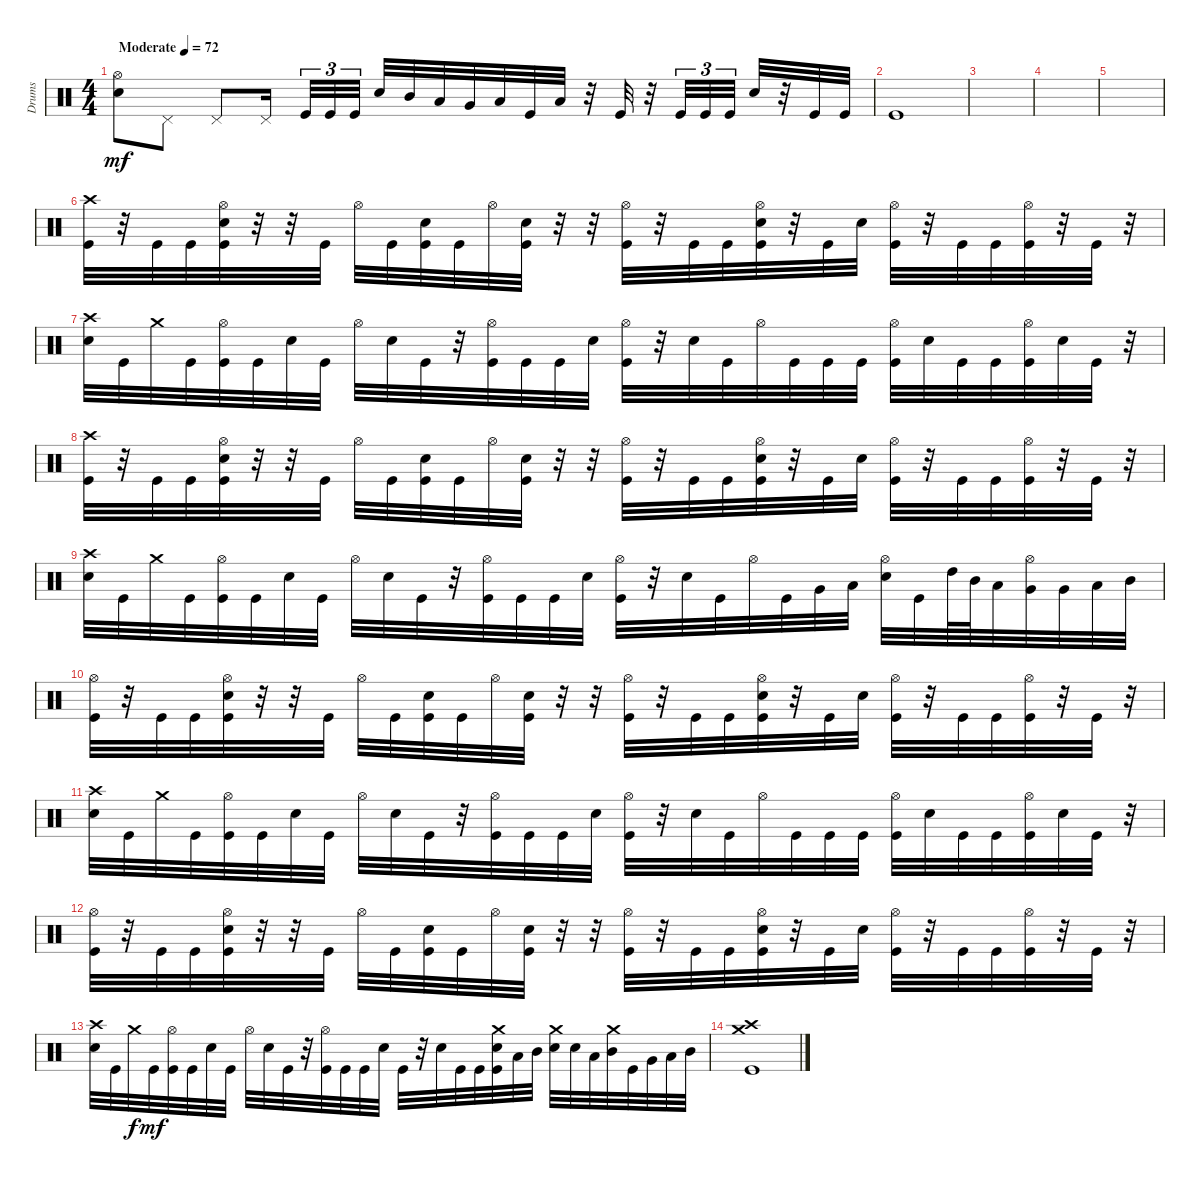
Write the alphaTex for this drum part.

\track ("Drums" "Drums") {instrument percussion}
\staff {score}
\articulation defaults
\ts (4 4)
\tempo (72 "Moderate")
\clef neutral
\ks c
("Hi-Hat (open)" "Electric Snare (hit)").8{dy mf} "Pedal Hi-Hat (hit)".8 "Pedal Hi-Hat (hit)".8 "Pedal Hi-Hat (hit)".16{beam splitsecondary} "Kick (hit)".32{tu (3 2)} "Kick (hit)".32{tu (3 2)} "Kick (hit)".32{tu (3 2)} "Electric Snare (hit)".32 "Mid Tom (hit)".32 "Low Tom (hit)".32 "Very Low Tom (hit)".32 "Low Floor Tom (hit)".32 "Kick (hit)".32 "Low Tom (hit)".32 r.32 "Kick (hit)".32 r.32 "Kick (hit)".32{tu (3 2)} "Kick (hit)".32{tu (3 2)} "Kick (hit)".32{tu (3 2) beam splitsecondary} "Electric Snare (hit)".32 r.32 "Kick (hit)".32 "Kick (hit)".32 |
"Kick (hit)".1 |
|
|
|
("Crash high (hit)" "Kick (hit)").32 r.32 "Kick (hit)".32 "Kick (hit)".32 ("Hi-Hat (open)" "Electric Snare (hit)" "Kick (hit)").32 r.32 r.32 "Kick (hit)".32 "Hi-Hat (open)".32 "Kick (hit)".32 ("Electric Snare (hit)" "Kick (hit)").32 "Kick (hit)".32 "Hi-Hat (open)".32 ("Electric Snare (hit)" "Kick (hit)").32 r.32 r.32 ("Hi-Hat (open)" "Kick (hit)").32 r.32 "Kick (hit)".32 "Kick (hit)".32 ("Hi-Hat (open)" "Electric Snare (hit)" "Kick (hit)").32 r.32 "Kick (hit)".32 "Electric Snare (hit)".32 ("Hi-Hat (open)" "Kick (hit)").32 r.32 "Kick (hit)".32 "Kick (hit)".32 ("Hi-Hat (open)" "Kick (hit)").32 r.32 "Kick (hit)".32 r.32 |
("Crash high (hit)" "Electric Snare (hit)").32 "Kick (hit)".32 "Crash medium (hit)".32 "Kick (hit)".32 ("Hi-Hat (open)" "Kick (hit)").32 "Kick (hit)".32 "Electric Snare (hit)".32 "Kick (hit)".32 "Hi-Hat (open)".32 "Electric Snare (hit)".32 "Kick (hit)".32 r.32 ("Hi-Hat (open)" "Kick (hit)").32 "Kick (hit)".32 "Kick (hit)".32 "Electric Snare (hit)".32 ("Hi-Hat (open)" "Kick (hit)").32 r.32 "Electric Snare (hit)".32 "Kick (hit)".32 "Hi-Hat (open)".32 "Kick (hit)".32 "Kick (hit)".32 "Kick (hit)".32 ("Hi-Hat (open)" "Kick (hit)").32 "Electric Snare (hit)".32 "Kick (hit)".32 "Kick (hit)".32 ("Hi-Hat (open)" "Kick (hit)").32 "Electric Snare (hit)".32 "Kick (hit)".32 r.32 |
("Crash high (hit)" "Kick (hit)").32 r.32 "Kick (hit)".32 "Kick (hit)".32 ("Hi-Hat (open)" "Electric Snare (hit)" "Kick (hit)").32 r.32 r.32 "Kick (hit)".32 "Hi-Hat (open)".32 "Kick (hit)".32 ("Electric Snare (hit)" "Kick (hit)").32 "Kick (hit)".32 "Hi-Hat (open)".32 ("Electric Snare (hit)" "Kick (hit)").32 r.32 r.32 ("Hi-Hat (open)" "Kick (hit)").32 r.32 "Kick (hit)".32 "Kick (hit)".32 ("Hi-Hat (open)" "Electric Snare (hit)" "Kick (hit)").32 r.32 "Kick (hit)".32 "Electric Snare (hit)".32 ("Hi-Hat (open)" "Kick (hit)").32 r.32 "Kick (hit)".32 "Kick (hit)".32 ("Hi-Hat (open)" "Kick (hit)").32 r.32 "Kick (hit)".32 r.32 |
("Crash high (hit)" "Electric Snare (hit)").32 "Kick (hit)".32 "Crash medium (hit)".32 "Kick (hit)".32 ("Hi-Hat (open)" "Kick (hit)").32 "Kick (hit)".32 "Electric Snare (hit)".32 "Kick (hit)".32 "Hi-Hat (open)".32 "Electric Snare (hit)".32 "Kick (hit)".32 r.32 ("Hi-Hat (open)" "Kick (hit)").32 "Kick (hit)".32 "Kick (hit)".32 "Electric Snare (hit)".32 ("Hi-Hat (open)" "Kick (hit)").32 r.32 "Electric Snare (hit)".32 "Kick (hit)".32 "Hi-Hat (open)".32 "Kick (hit)".32 "Very Low Tom (hit)".32 "Low Tom (hit)".32 ("Hi-Hat (open)" "Electric Snare (hit)").32 "Kick (hit)".32 "High Tom (hit)".64 "Mid Tom (hit)".64 "Low Tom (hit)".32 ("Hi-Hat (open)" "Very Low Tom (hit)").32 "Very Low Tom (hit)".32 "Low Tom (hit)".32 "Mid Tom (hit)".32 |
("Hi-Hat (open)" "Kick (hit)").32 r.32 "Kick (hit)".32 "Kick (hit)".32 ("Hi-Hat (open)" "Electric Snare (hit)" "Kick (hit)").32 r.32 r.32 "Kick (hit)".32 "Hi-Hat (open)".32 "Kick (hit)".32 ("Electric Snare (hit)" "Kick (hit)").32 "Kick (hit)".32 "Hi-Hat (open)".32 ("Electric Snare (hit)" "Kick (hit)").32 r.32 r.32 ("Hi-Hat (open)" "Kick (hit)").32 r.32 "Kick (hit)".32 "Kick (hit)".32 ("Hi-Hat (open)" "Electric Snare (hit)" "Kick (hit)").32 r.32 "Kick (hit)".32 "Electric Snare (hit)".32 ("Hi-Hat (open)" "Kick (hit)").32 r.32 "Kick (hit)".32 "Kick (hit)".32 ("Hi-Hat (open)" "Kick (hit)").32 r.32 "Kick (hit)".32 r.32 |
("Crash high (hit)" "Electric Snare (hit)").32 "Kick (hit)".32 "Crash medium (hit)".32 "Kick (hit)".32 ("Hi-Hat (open)" "Kick (hit)").32 "Kick (hit)".32 "Electric Snare (hit)".32 "Kick (hit)".32 "Hi-Hat (open)".32 "Electric Snare (hit)".32 "Kick (hit)".32 r.32 ("Hi-Hat (open)" "Kick (hit)").32 "Kick (hit)".32 "Kick (hit)".32 "Electric Snare (hit)".32 ("Hi-Hat (open)" "Kick (hit)").32 r.32 "Electric Snare (hit)".32 "Kick (hit)".32 "Hi-Hat (open)".32 "Kick (hit)".32 "Kick (hit)".32 "Kick (hit)".32 ("Hi-Hat (open)" "Kick (hit)").32 "Electric Snare (hit)".32 "Kick (hit)".32 "Kick (hit)".32 ("Hi-Hat (open)" "Kick (hit)").32 "Electric Snare (hit)".32 "Kick (hit)".32 r.32 |
("Hi-Hat (open)" "Kick (hit)").32 r.32 "Kick (hit)".32 "Kick (hit)".32 ("Hi-Hat (open)" "Electric Snare (hit)" "Kick (hit)").32 r.32 r.32 "Kick (hit)".32 "Hi-Hat (open)".32 "Kick (hit)".32 ("Electric Snare (hit)" "Kick (hit)").32 "Kick (hit)".32 "Hi-Hat (open)".32 ("Electric Snare (hit)" "Kick (hit)").32 r.32 r.32 ("Hi-Hat (open)" "Kick (hit)").32 r.32 "Kick (hit)".32 "Kick (hit)".32 ("Hi-Hat (open)" "Electric Snare (hit)" "Kick (hit)").32 r.32 "Kick (hit)".32 "Electric Snare (hit)".32 ("Hi-Hat (open)" "Kick (hit)").32 r.32 "Kick (hit)".32 "Kick (hit)".32 ("Hi-Hat (open)" "Kick (hit)").32 r.32 "Kick (hit)".32 r.32 |
("Crash high (hit)" "Electric Snare (hit)").32 "Kick (hit)".32 "Crash medium (hit)".32{dy f} "Kick (hit)".32{dy mf} ("Hi-Hat (open)" "Kick (hit)").32 "Kick (hit)".32 "Electric Snare (hit)".32 "Kick (hit)".32 "Hi-Hat (open)".32 "Electric Snare (hit)".32 "Kick (hit)".32 r.32 ("Hi-Hat (open)" "Kick (hit)").32 "Kick (hit)".32 "Kick (hit)".32 "Electric Snare (hit)".32 "Kick (hit)".32 r.32 "Electric Snare (hit)".32 "Kick (hit)".32 "Kick (hit)".32 ("Crash medium (hit)" "Electric Snare (hit)" "Kick (hit)").32 "Low Tom (hit)".32 "Mid Tom (hit)".32 ("Crash medium (hit)" "Electric Snare (hit)").32 "Electric Snare (hit)".32 "Low Tom (hit)".32 ("Crash medium (hit)" "Mid Tom (hit)").32 "Kick (hit)".32 "Very Low Tom (hit)".32 "Low Tom (hit)".32 "Mid Tom (hit)".32 |
("Crash high (hit)" "Crash medium (hit)" "Kick (hit)").1
